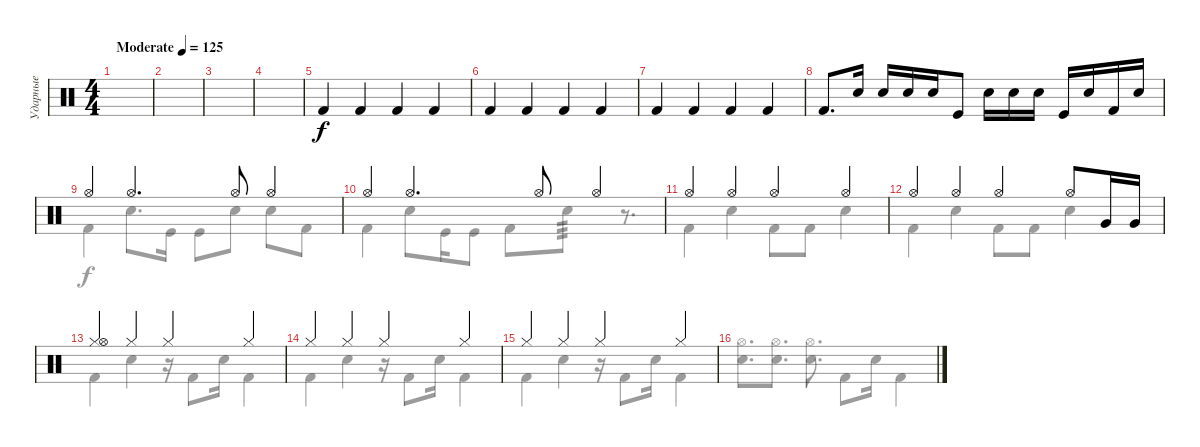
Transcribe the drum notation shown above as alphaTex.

\track ("Ударные" "Ударные") {instrument percussion}
\staff {score}
\articulation defaults
\voice
\ts (4 4)
\tempo (125 "Moderate")
\clef neutral
\ks c
|
|
|
|
"Kick (hit) 2".4 "Kick (hit) 2".4 "Kick (hit) 2".4 "Kick (hit) 2".4 |
"Kick (hit) 2".4 "Kick (hit) 2".4 "Kick (hit) 2".4 "Kick (hit) 2".4 |
"Kick (hit) 2".4 "Kick (hit) 2".4 "Kick (hit) 2".4 "Kick (hit) 2".4 |
"Kick (hit) 2".8{d} "Snare (hit) 2".16 "Snare (hit) 2".16 "Snare (hit) 2".16 "Snare (hit) 2".16 "Kick (hit)".8 "Snare (hit) 2".16 "Snare (hit) 2".16 "Snare (hit) 2".16 "Kick (hit)".16 "Snare (hit) 2".16 "Kick (hit) 2".16 "Snare (hit) 2".16 |
"Hi-Hat (open)".4 "Hi-Hat (open)".4{d} "Hi-Hat (open)".8 "Hi-Hat (open)".4 |
"Hi-Hat (open)".4 "Hi-Hat (open)".4{d} "Hi-Hat (open)".8 "Hi-Hat (open)".4 |
"Hi-Hat (open)".4 "Hi-Hat (open)".4 "Hi-Hat (open)".4 "Hi-Hat (open)".4 |
"Hi-Hat (open)".4 "Hi-Hat (open)".4 "Hi-Hat (open)".4 "Hi-Hat (open)".8 "Very Low Tom (hit)".16 "Very Low Tom (hit)".16 |
("Hi-Hat (closed)" "Hi-Hat (open)").4 "Hi-Hat (closed)".4 "Hi-Hat (closed)".4 "Hi-Hat (closed)".4 |
"Hi-Hat (closed)".4 "Hi-Hat (closed)".4 "Hi-Hat (closed)".4 "Hi-Hat (closed)".4 |
"Hi-Hat (closed)".4 "Hi-Hat (closed)".4 "Hi-Hat (closed)".4 "Hi-Hat (closed)".4 |
\voice
\clef neutral
\ottava regular
\simile none
\ks c
|
|
|
|
|
|
|
|
"Kick (hit) 2".4 "Snare (hit) 2".8{d} "Kick (hit)".16 "Kick (hit)".8 "Electric Snare (hit)".8 "Electric Snare (hit)".8 "Kick (hit) 2".8 |
"Kick (hit) 2".4 "Snare (hit) 2".8 "Kick (hit)".16 "Kick (hit)".8 "Kick (hit) 2".8 "Electric Snare (hit)".8{tp 3} r.8{d} |
"Kick (hit) 2".4 "Electric Snare (hit)".4 "Kick (hit) 2".8 "Kick (hit) 2".8 "Electric Snare (hit)".4 |
"Kick (hit) 2".4 "Electric Snare (hit)".4 "Kick (hit) 2".8 "Kick (hit) 2".8 "Electric Snare (hit)".4 |
"Kick (hit) 2".4 "Electric Snare (hit)".4 r.16 "Kick (hit) 2".8 "Electric Snare (hit)".16 "Kick (hit) 2".4 |
"Kick (hit) 2".4 "Electric Snare (hit)".4 r.16 "Kick (hit) 2".8 "Electric Snare (hit)".16 "Kick (hit) 2".4 |
"Kick (hit) 2".4 "Electric Snare (hit)".4 r.16 "Kick (hit) 2".8 "Electric Snare (hit)".16 "Kick (hit) 2".4 |
("Hi-Hat (open)" "Electric Snare (hit)").8{d} ("Hi-Hat (open)" "Electric Snare (hit)").8{d} ("Hi-Hat (open)" "Electric Snare (hit)").8{d} "Kick (hit) 2".8 "Electric Snare (hit)".16 "Kick (hit) 2".4
